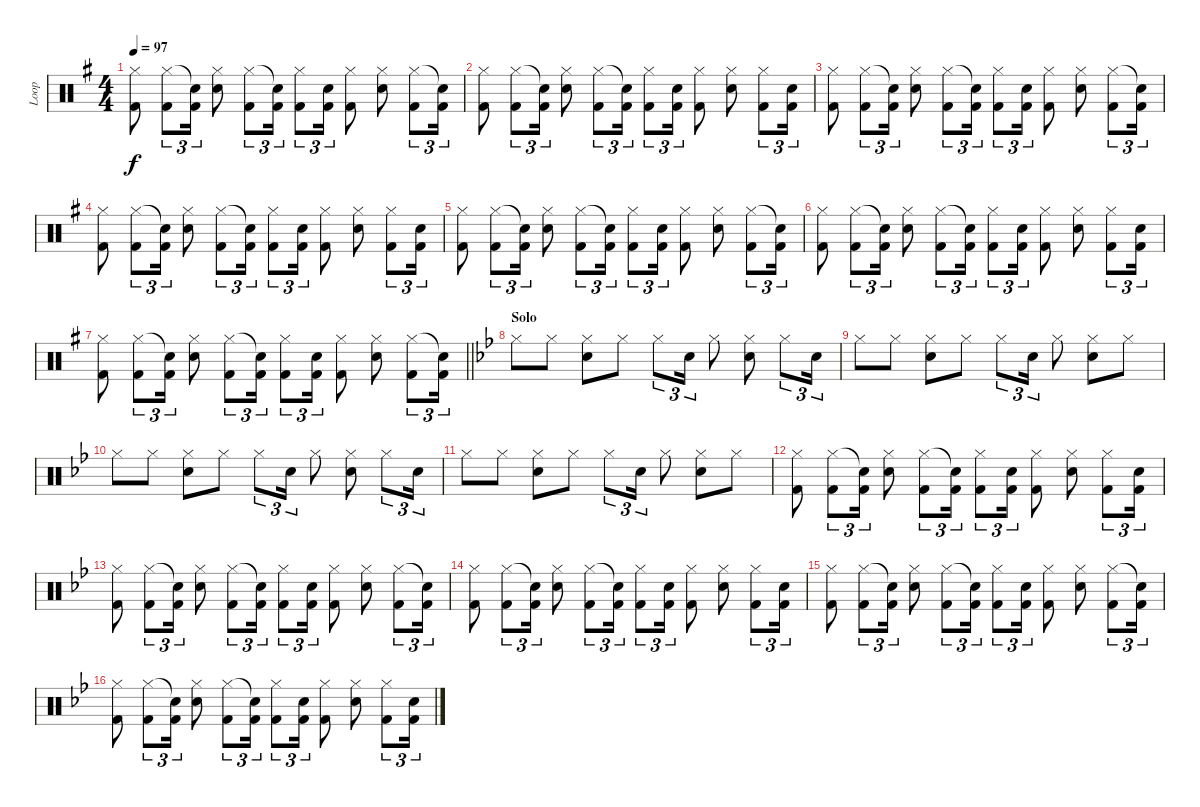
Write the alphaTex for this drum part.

\track ("Loop" "Loop") {instrument percussion}
\staff {score}
\articulation defaults
\ts (4 4)
\tempo 97
\clef neutral
\ks g
("Hi-Hat (closed)" "Kick (hit) 2").8{dy f} ("Hi-Hat (closed)" "Kick (hit) 2").8{tu (3 2)} ("Snare (hit)"{t} "Kick (hit) 2").16{tu (3 2)} ("Hi-Hat (closed)" "Electric Snare (hit)").8 ("Hi-Hat (closed)" "Kick (hit) 2").8{tu (3 2)} ("Snare (hit)"{t} "Kick (hit) 2").16{tu (3 2)} ("Hi-Hat (closed)" "Kick (hit) 2").8{tu (3 2)} ("Electric Snare (hit)" "Kick (hit) 2").16{tu (3 2)} ("Hi-Hat (closed)" "Kick (hit) 2").8 ("Hi-Hat (closed)" "Electric Snare (hit)").8 ("Hi-Hat (closed)" "Kick (hit) 2").8{tu (3 2)} ("Snare (hit)"{t} "Kick (hit) 2").16{tu (3 2)} |
("Hi-Hat (closed)" "Kick (hit) 2").8 ("Hi-Hat (closed)" "Kick (hit) 2").8{tu (3 2)} ("Snare (hit)"{t} "Kick (hit) 2").16{tu (3 2)} ("Hi-Hat (closed)" "Electric Snare (hit)").8 ("Hi-Hat (closed)" "Kick (hit) 2").8{tu (3 2)} ("Snare (hit)"{t} "Kick (hit) 2").16{tu (3 2)} ("Hi-Hat (closed)" "Kick (hit) 2").8{tu (3 2)} ("Electric Snare (hit)" "Kick (hit) 2").16{tu (3 2)} ("Hi-Hat (closed)" "Kick (hit) 2").8 ("Hi-Hat (closed)" "Electric Snare (hit)").8 ("Hi-Hat (closed)" "Kick (hit) 2").8{tu (3 2)} ("Electric Snare (hit)" "Kick (hit) 2").16{tu (3 2)} |
("Hi-Hat (closed)" "Kick (hit) 2").8 ("Hi-Hat (closed)" "Kick (hit) 2").8{tu (3 2)} ("Snare (hit)"{t} "Kick (hit) 2").16{tu (3 2)} ("Hi-Hat (closed)" "Electric Snare (hit)").8 ("Hi-Hat (closed)" "Kick (hit) 2").8{tu (3 2)} ("Snare (hit)"{t} "Kick (hit) 2").16{tu (3 2)} ("Hi-Hat (closed)" "Kick (hit) 2").8{tu (3 2)} ("Electric Snare (hit)" "Kick (hit) 2").16{tu (3 2)} ("Hi-Hat (closed)" "Kick (hit) 2").8 ("Hi-Hat (closed)" "Electric Snare (hit)").8 ("Hi-Hat (closed)" "Kick (hit) 2").8{tu (3 2)} ("Snare (hit)"{t} "Kick (hit) 2").16{tu (3 2)} |
("Hi-Hat (closed)" "Kick (hit) 2").8 ("Hi-Hat (closed)" "Kick (hit) 2").8{tu (3 2)} ("Snare (hit)"{t} "Kick (hit) 2").16{tu (3 2)} ("Hi-Hat (closed)" "Electric Snare (hit)").8 ("Hi-Hat (closed)" "Kick (hit) 2").8{tu (3 2)} ("Snare (hit)"{t} "Kick (hit) 2").16{tu (3 2)} ("Hi-Hat (closed)" "Kick (hit) 2").8{tu (3 2)} ("Electric Snare (hit)" "Kick (hit) 2").16{tu (3 2)} ("Hi-Hat (closed)" "Kick (hit) 2").8 ("Hi-Hat (closed)" "Electric Snare (hit)").8 ("Hi-Hat (closed)" "Kick (hit) 2").8{tu (3 2)} ("Electric Snare (hit)" "Kick (hit) 2").16{tu (3 2)} |
("Hi-Hat (closed)" "Kick (hit) 2").8 ("Hi-Hat (closed)" "Kick (hit) 2").8{tu (3 2)} ("Snare (hit)"{t} "Kick (hit) 2").16{tu (3 2)} ("Hi-Hat (closed)" "Electric Snare (hit)").8 ("Hi-Hat (closed)" "Kick (hit) 2").8{tu (3 2)} ("Snare (hit)"{t} "Kick (hit) 2").16{tu (3 2)} ("Hi-Hat (closed)" "Kick (hit) 2").8{tu (3 2)} ("Electric Snare (hit)" "Kick (hit) 2").16{tu (3 2)} ("Hi-Hat (closed)" "Kick (hit) 2").8 ("Hi-Hat (closed)" "Electric Snare (hit)").8 ("Hi-Hat (closed)" "Kick (hit) 2").8{tu (3 2)} ("Snare (hit)"{t} "Kick (hit) 2").16{tu (3 2)} |
("Hi-Hat (closed)" "Kick (hit) 2").8 ("Hi-Hat (closed)" "Kick (hit) 2").8{tu (3 2)} ("Snare (hit)"{t} "Kick (hit) 2").16{tu (3 2)} ("Hi-Hat (closed)" "Electric Snare (hit)").8 ("Hi-Hat (closed)" "Kick (hit) 2").8{tu (3 2)} ("Snare (hit)"{t} "Kick (hit) 2").16{tu (3 2)} ("Hi-Hat (closed)" "Kick (hit) 2").8{tu (3 2)} ("Electric Snare (hit)" "Kick (hit) 2").16{tu (3 2)} ("Hi-Hat (closed)" "Kick (hit) 2").8 ("Hi-Hat (closed)" "Electric Snare (hit)").8 ("Hi-Hat (closed)" "Kick (hit) 2").8{tu (3 2)} ("Electric Snare (hit)" "Kick (hit) 2").16{tu (3 2)} |
\barLineRight lightlight
("Hi-Hat (closed)" "Kick (hit) 2").8 ("Hi-Hat (closed)" "Kick (hit) 2").8{tu (3 2)} ("Snare (hit)"{t} "Kick (hit) 2").16{tu (3 2)} ("Hi-Hat (closed)" "Electric Snare (hit)").8 ("Hi-Hat (closed)" "Kick (hit) 2").8{tu (3 2)} ("Snare (hit)"{t} "Kick (hit) 2").16{tu (3 2)} ("Hi-Hat (closed)" "Kick (hit) 2").8{tu (3 2)} ("Electric Snare (hit)" "Kick (hit) 2").16{tu (3 2)} ("Hi-Hat (closed)" "Kick (hit) 2").8 ("Hi-Hat (closed)" "Electric Snare (hit)").8 ("Hi-Hat (closed)" "Kick (hit) 2").8{tu (3 2)} ("Snare (hit)"{t} "Kick (hit) 2").16{tu (3 2)} |
\section ("" "Solo")
\ks bb "Hi-Hat (closed)".8 "Hi-Hat (closed)".8
("Hi-Hat (closed)" "Electric Snare (hit)").8 "Hi-Hat (closed)".8 "Hi-Hat (closed)".8{tu (3 2)} "Electric Snare (hit)".16{tu (3 2)} "Hi-Hat (closed)".8 ("Hi-Hat (closed)" "Electric Snare (hit)").8 "Hi-Hat (closed)".8{tu (3 2)} "Electric Snare (hit)".16{tu (3 2)} |
"Hi-Hat (closed)".8 "Hi-Hat (closed)".8 ("Hi-Hat (closed)" "Electric Snare (hit)").8 "Hi-Hat (closed)".8 "Hi-Hat (closed)".8{tu (3 2)} "Electric Snare (hit)".16{tu (3 2)} "Hi-Hat (closed)".8 ("Hi-Hat (closed)" "Electric Snare (hit)").8 "Hi-Hat (closed)".8 |
"Hi-Hat (closed)".8 "Hi-Hat (closed)".8 ("Hi-Hat (closed)" "Electric Snare (hit)").8 "Hi-Hat (closed)".8 "Hi-Hat (closed)".8{tu (3 2)} "Electric Snare (hit)".16{tu (3 2)} "Hi-Hat (closed)".8 ("Hi-Hat (closed)" "Electric Snare (hit)").8 "Hi-Hat (closed)".8{tu (3 2)} "Electric Snare (hit)".16{tu (3 2)} |
"Hi-Hat (closed)".8 "Hi-Hat (closed)".8 ("Hi-Hat (closed)" "Electric Snare (hit)").8 "Hi-Hat (closed)".8 "Hi-Hat (closed)".8{tu (3 2)} "Electric Snare (hit)".16{tu (3 2)} "Hi-Hat (closed)".8 ("Hi-Hat (closed)" "Electric Snare (hit)").8 "Hi-Hat (closed)".8 |
("Hi-Hat (closed)" "Kick (hit) 2").8 ("Hi-Hat (closed)" "Kick (hit) 2").8{tu (3 2)} ("Snare (hit)"{t} "Kick (hit) 2").16{tu (3 2)} ("Hi-Hat (closed)" "Electric Snare (hit)").8 ("Hi-Hat (closed)" "Kick (hit) 2").8{tu (3 2)} ("Snare (hit)"{t} "Kick (hit) 2").16{tu (3 2)} ("Hi-Hat (closed)" "Kick (hit) 2").8{tu (3 2)} ("Electric Snare (hit)" "Kick (hit) 2").16{tu (3 2)} ("Hi-Hat (closed)" "Kick (hit) 2").8 ("Hi-Hat (closed)" "Electric Snare (hit)").8 ("Hi-Hat (closed)" "Kick (hit) 2").8{tu (3 2)} ("Electric Snare (hit)" "Kick (hit) 2").16{tu (3 2)} |
("Hi-Hat (closed)" "Kick (hit) 2").8 ("Hi-Hat (closed)" "Kick (hit) 2").8{tu (3 2)} ("Snare (hit)"{t} "Kick (hit) 2").16{tu (3 2)} ("Hi-Hat (closed)" "Electric Snare (hit)").8 ("Hi-Hat (closed)" "Kick (hit) 2").8{tu (3 2)} ("Snare (hit)"{t} "Kick (hit) 2").16{tu (3 2)} ("Hi-Hat (closed)" "Kick (hit) 2").8{tu (3 2)} ("Electric Snare (hit)" "Kick (hit) 2").16{tu (3 2)} ("Hi-Hat (closed)" "Kick (hit) 2").8 ("Hi-Hat (closed)" "Electric Snare (hit)").8 ("Hi-Hat (closed)" "Kick (hit) 2").8{tu (3 2)} ("Snare (hit)"{t} "Kick (hit) 2").16{tu (3 2)} |
("Hi-Hat (closed)" "Kick (hit) 2").8 ("Hi-Hat (closed)" "Kick (hit) 2").8{tu (3 2)} ("Snare (hit)"{t} "Kick (hit) 2").16{tu (3 2)} ("Hi-Hat (closed)" "Electric Snare (hit)").8 ("Hi-Hat (closed)" "Kick (hit) 2").8{tu (3 2)} ("Snare (hit)"{t} "Kick (hit) 2").16{tu (3 2)} ("Hi-Hat (closed)" "Kick (hit) 2").8{tu (3 2)} ("Electric Snare (hit)" "Kick (hit) 2").16{tu (3 2)} ("Hi-Hat (closed)" "Kick (hit) 2").8 ("Hi-Hat (closed)" "Electric Snare (hit)").8 ("Hi-Hat (closed)" "Kick (hit) 2").8{tu (3 2)} ("Electric Snare (hit)" "Kick (hit) 2").16{tu (3 2)} |
("Hi-Hat (closed)" "Kick (hit) 2").8 ("Hi-Hat (closed)" "Kick (hit) 2").8{tu (3 2)} ("Snare (hit)"{t} "Kick (hit) 2").16{tu (3 2)} ("Hi-Hat (closed)" "Electric Snare (hit)").8 ("Hi-Hat (closed)" "Kick (hit) 2").8{tu (3 2)} ("Snare (hit)"{t} "Kick (hit) 2").16{tu (3 2)} ("Hi-Hat (closed)" "Kick (hit) 2").8{tu (3 2)} ("Electric Snare (hit)" "Kick (hit) 2").16{tu (3 2)} ("Hi-Hat (closed)" "Kick (hit) 2").8 ("Hi-Hat (closed)" "Electric Snare (hit)").8 ("Hi-Hat (closed)" "Kick (hit) 2").8{tu (3 2)} ("Snare (hit)"{t} "Kick (hit) 2").16{tu (3 2)} |
("Hi-Hat (closed)" "Kick (hit) 2").8 ("Hi-Hat (closed)" "Kick (hit) 2").8{tu (3 2)} ("Snare (hit)"{t} "Kick (hit) 2").16{tu (3 2)} ("Hi-Hat (closed)" "Electric Snare (hit)").8 ("Hi-Hat (closed)" "Kick (hit) 2").8{tu (3 2)} ("Snare (hit)"{t} "Kick (hit) 2").16{tu (3 2)} ("Hi-Hat (closed)" "Kick (hit) 2").8{tu (3 2)} ("Electric Snare (hit)" "Kick (hit) 2").16{tu (3 2)} ("Hi-Hat (closed)" "Kick (hit) 2").8 ("Hi-Hat (closed)" "Electric Snare (hit)").8 ("Hi-Hat (closed)" "Kick (hit) 2").8{tu (3 2)} ("Electric Snare (hit)" "Kick (hit) 2").16{tu (3 2)}
